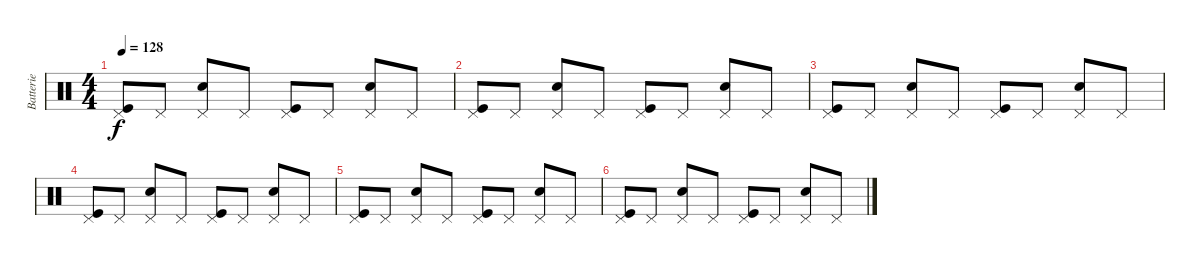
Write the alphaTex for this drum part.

\track ("Batterie" "Batterie") {instrument percussion}
\staff {score}
\articulation defaults
\ts (4 4)
\tempo 128
\clef neutral
\ks c
("Pedal Hi-Hat (hit)" "Kick (hit)").8{dy f} "Pedal Hi-Hat (hit)".8 ("Pedal Hi-Hat (hit)" "Snare (hit) 2").8 "Pedal Hi-Hat (hit)".8 ("Pedal Hi-Hat (hit)" "Kick (hit)").8 "Pedal Hi-Hat (hit)".8 ("Pedal Hi-Hat (hit)" "Snare (hit) 2").8 "Pedal Hi-Hat (hit)".8 |
("Pedal Hi-Hat (hit)" "Kick (hit)").8 "Pedal Hi-Hat (hit)".8 ("Pedal Hi-Hat (hit)" "Snare (hit) 2").8 "Pedal Hi-Hat (hit)".8 ("Pedal Hi-Hat (hit)" "Kick (hit)").8 "Pedal Hi-Hat (hit)".8 ("Pedal Hi-Hat (hit)" "Snare (hit) 2").8 "Pedal Hi-Hat (hit)".8 |
("Pedal Hi-Hat (hit)" "Kick (hit)").8 "Pedal Hi-Hat (hit)".8 ("Pedal Hi-Hat (hit)" "Snare (hit) 2").8 "Pedal Hi-Hat (hit)".8 ("Pedal Hi-Hat (hit)" "Kick (hit)").8 "Pedal Hi-Hat (hit)".8 ("Pedal Hi-Hat (hit)" "Snare (hit) 2").8 "Pedal Hi-Hat (hit)".8 |
("Pedal Hi-Hat (hit)" "Kick (hit)").8 "Pedal Hi-Hat (hit)".8 ("Pedal Hi-Hat (hit)" "Snare (hit) 2").8 "Pedal Hi-Hat (hit)".8 ("Pedal Hi-Hat (hit)" "Kick (hit)").8 "Pedal Hi-Hat (hit)".8 ("Pedal Hi-Hat (hit)" "Snare (hit) 2").8 "Pedal Hi-Hat (hit)".8 |
("Pedal Hi-Hat (hit)" "Kick (hit)").8 "Pedal Hi-Hat (hit)".8 ("Pedal Hi-Hat (hit)" "Snare (hit) 2").8 "Pedal Hi-Hat (hit)".8 ("Pedal Hi-Hat (hit)" "Kick (hit)").8 "Pedal Hi-Hat (hit)".8 ("Pedal Hi-Hat (hit)" "Snare (hit) 2").8 "Pedal Hi-Hat (hit)".8 |
("Pedal Hi-Hat (hit)" "Kick (hit)").8 "Pedal Hi-Hat (hit)".8 ("Pedal Hi-Hat (hit)" "Snare (hit) 2").8 "Pedal Hi-Hat (hit)".8 ("Pedal Hi-Hat (hit)" "Kick (hit)").8 "Pedal Hi-Hat (hit)".8 ("Pedal Hi-Hat (hit)" "Snare (hit) 2").8 "Pedal Hi-Hat (hit)".8
